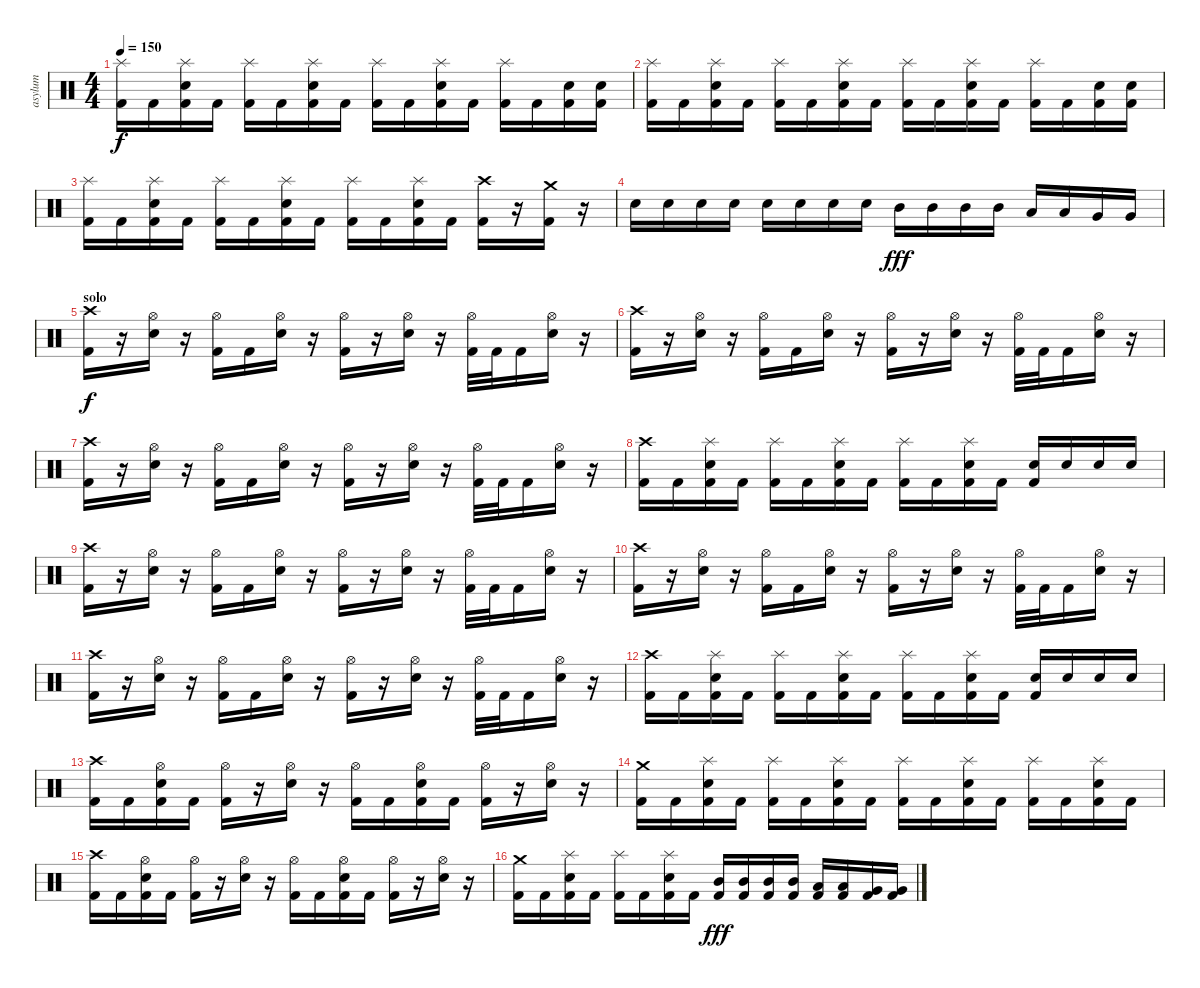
\track ("asylum" "asylum") {instrument percussion}
\staff {score}
\articulation defaults
\ts (4 4)
\tempo 150
\clef neutral
\ks c
("Splash (hit)" "Kick (hit) 2").16{dy f} "Kick (hit) 2".16 ("Splash (hit)" "Electric Snare (hit)" "Kick (hit) 2").16 "Kick (hit) 2".16 ("Splash (hit)" "Kick (hit) 2").16 "Kick (hit) 2".16 ("Splash (hit)" "Electric Snare (hit)" "Kick (hit) 2").16 "Kick (hit) 2".16 ("Splash (hit)" "Kick (hit) 2").16 "Kick (hit) 2".16 ("Splash (hit)" "Electric Snare (hit)" "Kick (hit) 2").16 "Kick (hit) 2".16 ("Splash (hit)" "Kick (hit) 2").16 "Kick (hit) 2".16 ("Electric Snare (hit)" "Kick (hit) 2").16 ("Electric Snare (hit)" "Kick (hit) 2").16 |
("Splash (hit)" "Kick (hit) 2").16 "Kick (hit) 2".16 ("Splash (hit)" "Electric Snare (hit)" "Kick (hit) 2").16 "Kick (hit) 2".16 ("Splash (hit)" "Kick (hit) 2").16 "Kick (hit) 2".16 ("Splash (hit)" "Electric Snare (hit)" "Kick (hit) 2").16 "Kick (hit) 2".16 ("Splash (hit)" "Kick (hit) 2").16 "Kick (hit) 2".16 ("Splash (hit)" "Electric Snare (hit)" "Kick (hit) 2").16 "Kick (hit) 2".16 ("Splash (hit)" "Kick (hit) 2").16 "Kick (hit) 2".16 ("Electric Snare (hit)" "Kick (hit) 2").16 ("Electric Snare (hit)" "Kick (hit) 2").16 |
("Splash (hit)" "Kick (hit) 2").16 "Kick (hit) 2".16 ("Splash (hit)" "Electric Snare (hit)" "Kick (hit) 2").16 "Kick (hit) 2".16 ("Splash (hit)" "Kick (hit) 2").16 "Kick (hit) 2".16 ("Splash (hit)" "Electric Snare (hit)" "Kick (hit) 2").16 "Kick (hit) 2".16 ("Splash (hit)" "Kick (hit) 2").16 "Kick (hit) 2".16 ("Splash (hit)" "Electric Snare (hit)" "Kick (hit) 2").16 "Kick (hit) 2".16 ("Crash high (hit)" "Kick (hit) 2").16 r.16 ("Crash medium (hit)" "Kick (hit) 2").16 r.16 |
"Electric Snare (hit)".16 "Electric Snare (hit)".16 "Electric Snare (hit)".16 "Electric Snare (hit)".16 "Electric Snare (hit)".16 "Electric Snare (hit)".16 "Electric Snare (hit)".16 "Electric Snare (hit)".16 "Mid Tom (hit)".16{dy fff} "Mid Tom (hit)".16 "Mid Tom (hit)".16 "Mid Tom (hit)".16 "Low Tom (hit)".16 "Low Tom (hit)".16 "Very Low Tom (hit)".16 "Very Low Tom (hit)".16 |
\section ("" "solo")
("Crash high (hit)" "Kick (hit) 2").16{dy f} r.16 ("Hi-Hat (open)" "Electric Snare (hit)").16 r.16 ("Hi-Hat (open)" "Kick (hit) 2").16 "Kick (hit) 2".16 ("Hi-Hat (open)" "Electric Snare (hit)").16 r.16 ("Hi-Hat (open)" "Kick (hit) 2").16 r.16 ("Hi-Hat (open)" "Electric Snare (hit)").16 r.16 ("Hi-Hat (open)" "Kick (hit) 2").32 "Kick (hit) 2".32 "Kick (hit) 2".16 ("Hi-Hat (open)" "Electric Snare (hit)").16 r.16 |
("Crash high (hit)" "Kick (hit) 2").16 r.16 ("Hi-Hat (open)" "Electric Snare (hit)").16 r.16 ("Hi-Hat (open)" "Kick (hit) 2").16 "Kick (hit) 2".16 ("Hi-Hat (open)" "Electric Snare (hit)").16 r.16 ("Hi-Hat (open)" "Kick (hit) 2").16 r.16 ("Hi-Hat (open)" "Electric Snare (hit)").16 r.16 ("Hi-Hat (open)" "Kick (hit) 2").32 "Kick (hit) 2".32 "Kick (hit) 2".16 ("Hi-Hat (open)" "Electric Snare (hit)").16 r.16 |
("Crash high (hit)" "Kick (hit) 2").16 r.16 ("Hi-Hat (open)" "Electric Snare (hit)").16 r.16 ("Hi-Hat (open)" "Kick (hit) 2").16 "Kick (hit) 2".16 ("Hi-Hat (open)" "Electric Snare (hit)").16 r.16 ("Hi-Hat (open)" "Kick (hit) 2").16 r.16 ("Hi-Hat (open)" "Electric Snare (hit)").16 r.16 ("Hi-Hat (open)" "Kick (hit) 2").32 "Kick (hit) 2".32 "Kick (hit) 2".16 ("Hi-Hat (open)" "Electric Snare (hit)").16 r.16 |
("Crash high (hit)" "Kick (hit) 2").16 "Kick (hit) 2".16 ("Splash (hit)" "Electric Snare (hit)" "Kick (hit) 2").16 "Kick (hit) 2".16 ("Splash (hit)" "Kick (hit) 2").16 "Kick (hit) 2".16 ("Splash (hit)" "Electric Snare (hit)" "Kick (hit) 2").16 "Kick (hit) 2".16 ("Splash (hit)" "Kick (hit) 2").16 "Kick (hit) 2".16 ("Splash (hit)" "Electric Snare (hit)" "Kick (hit) 2").16 "Kick (hit) 2".16 ("Electric Snare (hit)" "Kick (hit) 2").16 "Electric Snare (hit)".16 "Electric Snare (hit)".16 "Electric Snare (hit)".16 |
("Crash high (hit)" "Kick (hit) 2").16 r.16 ("Hi-Hat (open)" "Electric Snare (hit)").16 r.16 ("Hi-Hat (open)" "Kick (hit) 2").16 "Kick (hit) 2".16 ("Hi-Hat (open)" "Electric Snare (hit)").16 r.16 ("Hi-Hat (open)" "Kick (hit) 2").16 r.16 ("Hi-Hat (open)" "Electric Snare (hit)").16 r.16 ("Hi-Hat (open)" "Kick (hit) 2").32 "Kick (hit) 2".32 "Kick (hit) 2".16 ("Hi-Hat (open)" "Electric Snare (hit)").16 r.16 |
("Crash high (hit)" "Kick (hit) 2").16 r.16 ("Hi-Hat (open)" "Electric Snare (hit)").16 r.16 ("Hi-Hat (open)" "Kick (hit) 2").16 "Kick (hit) 2".16 ("Hi-Hat (open)" "Electric Snare (hit)").16 r.16 ("Hi-Hat (open)" "Kick (hit) 2").16 r.16 ("Hi-Hat (open)" "Electric Snare (hit)").16 r.16 ("Hi-Hat (open)" "Kick (hit) 2").32 "Kick (hit) 2".32 "Kick (hit) 2".16 ("Hi-Hat (open)" "Electric Snare (hit)").16 r.16 |
("Crash high (hit)" "Kick (hit) 2").16 r.16 ("Hi-Hat (open)" "Electric Snare (hit)").16 r.16 ("Hi-Hat (open)" "Kick (hit) 2").16 "Kick (hit) 2".16 ("Hi-Hat (open)" "Electric Snare (hit)").16 r.16 ("Hi-Hat (open)" "Kick (hit) 2").16 r.16 ("Hi-Hat (open)" "Electric Snare (hit)").16 r.16 ("Hi-Hat (open)" "Kick (hit) 2").32 "Kick (hit) 2".32 "Kick (hit) 2".16 ("Hi-Hat (open)" "Electric Snare (hit)").16 r.16 |
("Crash high (hit)" "Kick (hit) 2").16 "Kick (hit) 2".16 ("Splash (hit)" "Electric Snare (hit)" "Kick (hit) 2").16 "Kick (hit) 2".16 ("Splash (hit)" "Kick (hit) 2").16 "Kick (hit) 2".16 ("Splash (hit)" "Electric Snare (hit)" "Kick (hit) 2").16 "Kick (hit) 2".16 ("Splash (hit)" "Kick (hit) 2").16 "Kick (hit) 2".16 ("Splash (hit)" "Electric Snare (hit)" "Kick (hit) 2").16 "Kick (hit) 2".16 ("Electric Snare (hit)" "Kick (hit) 2").16 "Electric Snare (hit)".16 "Electric Snare (hit)".16 "Electric Snare (hit)".16 |
("Crash high (hit)" "Kick (hit) 2").16 "Kick (hit) 2".16 ("Hi-Hat (open)" "Electric Snare (hit)" "Kick (hit) 2").16 "Kick (hit) 2".16 ("Hi-Hat (open)" "Kick (hit) 2").16 r.16 ("Hi-Hat (open)" "Electric Snare (hit)").16 r.16 ("Hi-Hat (open)" "Kick (hit) 2").16 "Kick (hit) 2".16 ("Hi-Hat (open)" "Electric Snare (hit)" "Kick (hit) 2").16 "Kick (hit) 2".16 ("Hi-Hat (open)" "Kick (hit) 2").16 r.16 ("Hi-Hat (open)" "Electric Snare (hit)").16 r.16 |
("Crash medium (hit)" "Kick (hit) 2").16 "Kick (hit) 2".16 ("Splash (hit)" "Electric Snare (hit)" "Kick (hit) 2").16 "Kick (hit) 2".16 ("Splash (hit)" "Kick (hit) 2").16 "Kick (hit) 2".16 ("Splash (hit)" "Electric Snare (hit)" "Kick (hit) 2").16 "Kick (hit) 2".16 ("Splash (hit)" "Kick (hit) 2").16 "Kick (hit) 2".16 ("Splash (hit)" "Electric Snare (hit)" "Kick (hit) 2").16 "Kick (hit) 2".16 ("Splash (hit)" "Kick (hit) 2").16 "Kick (hit) 2".16 ("Splash (hit)" "Electric Snare (hit)" "Kick (hit) 2").16 "Kick (hit) 2".16 |
("Crash high (hit)" "Kick (hit) 2").16 "Kick (hit) 2".16 ("Hi-Hat (open)" "Electric Snare (hit)" "Kick (hit) 2").16 "Kick (hit) 2".16 ("Hi-Hat (open)" "Kick (hit) 2").16 r.16 ("Hi-Hat (open)" "Electric Snare (hit)").16 r.16 ("Hi-Hat (open)" "Kick (hit) 2").16 "Kick (hit) 2".16 ("Hi-Hat (open)" "Electric Snare (hit)" "Kick (hit) 2").16 "Kick (hit) 2".16 ("Hi-Hat (open)" "Kick (hit) 2").16 r.16 ("Hi-Hat (open)" "Electric Snare (hit)").16 r.16 |
("Crash medium (hit)" "Kick (hit) 2").16 "Kick (hit) 2".16 ("Splash (hit)" "Electric Snare (hit)" "Kick (hit) 2").16 "Kick (hit) 2".16 ("Splash (hit)" "Kick (hit) 2").16 "Kick (hit) 2".16 ("Splash (hit)" "Electric Snare (hit)" "Kick (hit) 2").16 "Kick (hit) 2".16 ("Mid Tom (hit)" "Kick (hit) 2").16{dy fff} ("Mid Tom (hit)" "Kick (hit) 2").16 ("Mid Tom (hit)" "Kick (hit) 2").16 ("Mid Tom (hit)" "Kick (hit) 2").16 ("Low Tom (hit)" "Kick (hit) 2").16 ("Low Tom (hit)" "Kick (hit) 2").16 ("Very Low Tom (hit)" "Kick (hit) 2").16 ("Very Low Tom (hit)" "Kick (hit) 2").16
